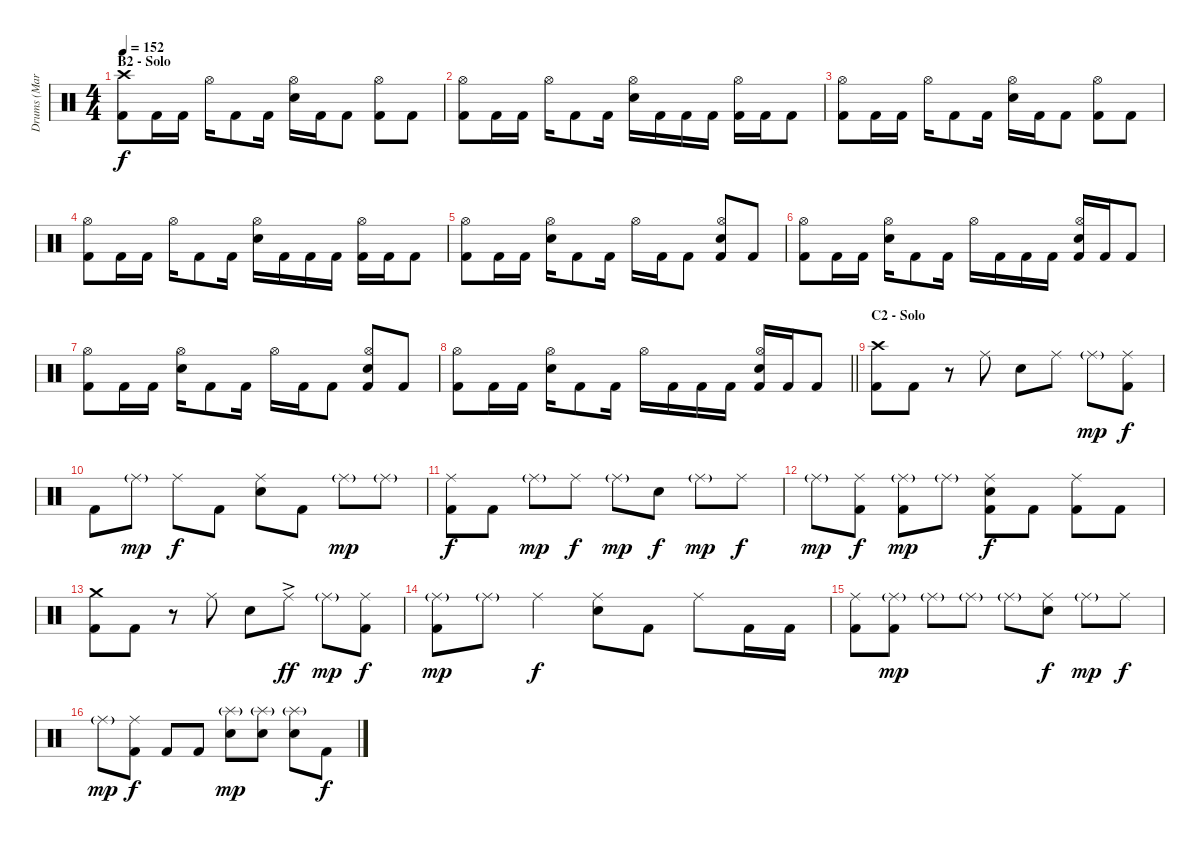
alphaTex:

\track ("Drums (Mark Arrington)" "Drums (Mar") {instrument percussion}
\staff {score}
\articulation defaults
\ts (4 4)
\section ("" "B2 - Solo")
\tempo 152
\clef neutral
\ks aminor
("Crash high (hit)" "Kick (hit) 2").8{dy f} "Kick (hit) 2".16 "Kick (hit) 2".16 "Hi-Hat (open)".16 "Kick (hit) 2".8 "Kick (hit) 2".16 ("Hi-Hat (open)" "Electric Snare (hit)").16 "Kick (hit) 2".16 "Kick (hit) 2".8 ("Hi-Hat (open)" "Kick (hit) 2").8 "Kick (hit) 2".8 |
("Hi-Hat (open)" "Kick (hit) 2").8 "Kick (hit) 2".16 "Kick (hit) 2".16 "Hi-Hat (open)".16 "Kick (hit) 2".8 "Kick (hit) 2".16 ("Hi-Hat (open)" "Electric Snare (hit)").16 "Kick (hit) 2".16 "Kick (hit) 2".16 "Kick (hit) 2".16 ("Hi-Hat (open)" "Kick (hit) 2").16 "Kick (hit) 2".16 "Kick (hit) 2".8 |
("Hi-Hat (open)" "Kick (hit) 2").8 "Kick (hit) 2".16 "Kick (hit) 2".16 "Hi-Hat (open)".16 "Kick (hit) 2".8 "Kick (hit) 2".16 ("Hi-Hat (open)" "Electric Snare (hit)").16 "Kick (hit) 2".16 "Kick (hit) 2".8 ("Hi-Hat (open)" "Kick (hit) 2").8 "Kick (hit) 2".8 |
("Hi-Hat (open)" "Kick (hit) 2").8 "Kick (hit) 2".16 "Kick (hit) 2".16 "Hi-Hat (open)".16 "Kick (hit) 2".8 "Kick (hit) 2".16 ("Hi-Hat (open)" "Electric Snare (hit)").16 "Kick (hit) 2".16 "Kick (hit) 2".16 "Kick (hit) 2".16 ("Hi-Hat (open)" "Kick (hit) 2").16 "Kick (hit) 2".16 "Kick (hit) 2".8 |
("Hi-Hat (open)" "Kick (hit) 2").8 "Kick (hit) 2".16 "Kick (hit) 2".16 ("Hi-Hat (open)" "Electric Snare (hit)").16 "Kick (hit) 2".8 "Kick (hit) 2".16 "Hi-Hat (open)".16 "Kick (hit) 2".16 "Kick (hit) 2".8 ("Hi-Hat (open)" "Electric Snare (hit)" "Kick (hit) 2").8 "Kick (hit) 2".8 |
("Hi-Hat (open)" "Kick (hit) 2").8 "Kick (hit) 2".16 "Kick (hit) 2".16 ("Hi-Hat (open)" "Electric Snare (hit)").16 "Kick (hit) 2".8 "Kick (hit) 2".16 "Hi-Hat (open)".16 "Kick (hit) 2".16 "Kick (hit) 2".16 "Kick (hit) 2".16 ("Hi-Hat (open)" "Electric Snare (hit)" "Kick (hit) 2").16 "Kick (hit) 2".16 "Kick (hit) 2".8 |
("Hi-Hat (open)" "Kick (hit) 2").8 "Kick (hit) 2".16 "Kick (hit) 2".16 ("Hi-Hat (open)" "Electric Snare (hit)").16 "Kick (hit) 2".8 "Kick (hit) 2".16 "Hi-Hat (open)".16 "Kick (hit) 2".16 "Kick (hit) 2".8 ("Hi-Hat (open)" "Electric Snare (hit)" "Kick (hit) 2").8 "Kick (hit) 2".8 |
\barLineRight lightlight
("Hi-Hat (open)" "Kick (hit) 2").8 "Kick (hit) 2".16 "Kick (hit) 2".16 ("Hi-Hat (open)" "Electric Snare (hit)").16 "Kick (hit) 2".8 "Kick (hit) 2".16 "Hi-Hat (open)".16 "Kick (hit) 2".16 "Kick (hit) 2".16 "Kick (hit) 2".16 ("Hi-Hat (open)" "Electric Snare (hit)" "Kick (hit) 2").16 "Kick (hit) 2".16 "Kick (hit) 2".8 |
\section ("" "C2 - Solo")
("Crash high (hit)" "Kick (hit) 2").8 "Kick (hit) 2".8 r.8 "Ride (middle)".8 "Electric Snare (hit)".8 "Ride (middle)".8 "Ride (middle)"{g}.8{dy mp} ("Ride (middle)" "Kick (hit) 2").8{dy f} |
"Kick (hit) 2".8 "Ride (middle)"{g}.8{dy mp} "Ride (middle)".8{dy f} "Kick (hit) 2".8 ("Ride (middle)" "Electric Snare (hit)").8 "Kick (hit) 2".8 "Ride (middle)"{g}.8{dy mp} "Ride (middle)"{g}.8 |
("Ride (middle)" "Kick (hit) 2").8{dy f} "Kick (hit) 2".8 "Ride (middle)"{g}.8{dy mp} "Ride (middle)".8{dy f} "Ride (middle)"{g}.8{dy mp} "Electric Snare (hit)".8{dy f} "Ride (middle)"{g}.8{dy mp} "Ride (middle)".8{dy f} |
"Ride (middle)"{g}.8{dy mp} ("Ride (middle)" "Kick (hit) 2").8{dy f} ("Ride (middle)"{g} "Kick (hit) 2").8{dy mp} "Ride (middle)"{g}.8 ("Ride (middle)" "Electric Snare (hit)" "Kick (hit) 2").8{dy f} "Kick (hit) 2".8 ("Ride (middle)" "Kick (hit) 2").8 "Kick (hit) 2".8 |
("Crash medium (hit)" "Kick (hit) 2").8 "Kick (hit) 2".8 r.8 "Ride (middle)".8 "Electric Snare (hit)".8 "Ride (middle)"{ac}.8{dy ff} "Ride (middle)"{g}.8{dy mp} ("Ride (middle)" "Kick (hit) 2").8{dy f} |
("Ride (middle)"{g} "Kick (hit) 2").8{dy mp} "Ride (middle)"{g}.8 "Ride (middle)".4{dy f} ("Ride (middle)" "Electric Snare (hit)").8 "Kick (hit) 2".8 "Ride (middle)".8 "Kick (hit) 2".16 "Kick (hit) 2".16 |
("Ride (middle)" "Kick (hit) 2").8 ("Ride (middle)"{g} "Kick (hit) 2").8{dy mp} "Ride (middle)"{g}.8 "Ride (middle)"{g}.8 "Ride (middle)"{g}.8 ("Ride (middle)" "Electric Snare (hit)").8{dy f} "Ride (middle)"{g}.8{dy mp} "Ride (middle)".8{dy f} |
"Ride (middle)"{g}.8{dy mp} ("Ride (middle)" "Kick (hit) 2").8{dy f} "Kick (hit) 2".8 "Kick (hit) 2".8 ("Splash (hit)"{g} "Electric Snare (hit)").8{dy mp} ("Splash (hit)"{g} "Electric Snare (hit)").8 ("Splash (hit)"{g} "Electric Snare (hit)").8 "Kick (hit) 2".8{dy f}
